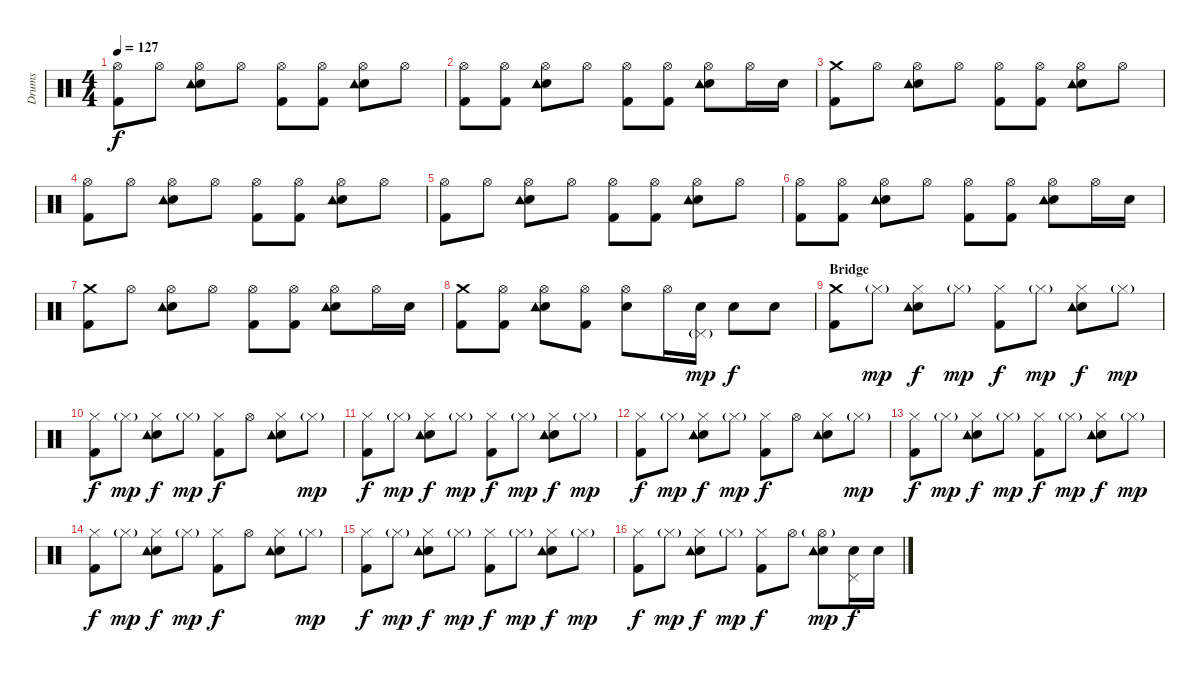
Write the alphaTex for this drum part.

\track ("Drums" "Drums") {instrument percussion}
\staff {score}
\articulation defaults
\ts (4 4)
\tempo 127
\clef neutral
\ks c
("Hi-Hat (open)" "Kick (hit) 2").8{dy f} "Hi-Hat (open)".8 ("Hi-Hat (open)" "Snare (hit) 2" "Tambourine (hit)").8 "Hi-Hat (open)".8 ("Hi-Hat (open)" "Kick (hit) 2").8 ("Hi-Hat (open)" "Kick (hit) 2").8 ("Hi-Hat (open)" "Snare (hit) 2" "Tambourine (hit)").8 "Hi-Hat (open)".8 |
("Hi-Hat (open)" "Kick (hit) 2").8 ("Hi-Hat (open)" "Kick (hit) 2").8 ("Hi-Hat (open)" "Snare (hit) 2" "Tambourine (hit)").8 "Hi-Hat (open)".8 ("Hi-Hat (open)" "Kick (hit) 2").8 ("Hi-Hat (open)" "Kick (hit) 2").8 ("Hi-Hat (open)" "Snare (hit) 2" "Tambourine (hit)").8 "Hi-Hat (open)".16 "Snare (hit) 2".16 |
("Crash medium (hit)" "Kick (hit) 2").8 "Hi-Hat (open)".8 ("Hi-Hat (open)" "Snare (hit) 2" "Tambourine (hit)").8 "Hi-Hat (open)".8 ("Hi-Hat (open)" "Kick (hit) 2").8 ("Hi-Hat (open)" "Kick (hit) 2").8 ("Hi-Hat (open)" "Snare (hit) 2" "Tambourine (hit)").8 "Hi-Hat (open)".8 |
("Hi-Hat (open)" "Kick (hit) 2").8 "Hi-Hat (open)".8 ("Hi-Hat (open)" "Snare (hit) 2" "Tambourine (hit)").8 "Hi-Hat (open)".8 ("Hi-Hat (open)" "Kick (hit) 2").8 ("Hi-Hat (open)" "Kick (hit) 2").8 ("Hi-Hat (open)" "Snare (hit) 2" "Tambourine (hit)").8 "Hi-Hat (open)".8 |
("Hi-Hat (open)" "Kick (hit) 2").8 "Hi-Hat (open)".8 ("Hi-Hat (open)" "Snare (hit) 2" "Tambourine (hit)").8 "Hi-Hat (open)".8 ("Hi-Hat (open)" "Kick (hit) 2").8 ("Hi-Hat (open)" "Kick (hit) 2").8 ("Hi-Hat (open)" "Snare (hit) 2" "Tambourine (hit)").8 "Hi-Hat (open)".8 |
("Hi-Hat (open)" "Kick (hit) 2").8 ("Hi-Hat (open)" "Kick (hit) 2").8 ("Hi-Hat (open)" "Snare (hit) 2" "Tambourine (hit)").8 "Hi-Hat (open)".8 ("Hi-Hat (open)" "Kick (hit) 2").8 ("Hi-Hat (open)" "Kick (hit) 2").8 ("Hi-Hat (open)" "Snare (hit) 2" "Tambourine (hit)").8 "Hi-Hat (open)".16 "Snare (hit) 2".16 |
("Crash medium (hit)" "Kick (hit) 2").8 "Hi-Hat (open)".8 ("Hi-Hat (open)" "Snare (hit) 2" "Tambourine (hit)").8 "Hi-Hat (open)".8 ("Hi-Hat (open)" "Kick (hit) 2").8 ("Hi-Hat (open)" "Kick (hit) 2").8 ("Hi-Hat (open)" "Snare (hit) 2" "Tambourine (hit)").8 "Hi-Hat (open)".16 "Snare (hit) 2".16 |
("Crash medium (hit)" "Kick (hit) 2").8 ("Hi-Hat (open)" "Kick (hit) 2").8 ("Hi-Hat (open)" "Snare (hit) 2" "Tambourine (hit)").8 ("Hi-Hat (open)" "Kick (hit) 2").8 ("Hi-Hat (open)" "Snare (hit) 2").8 "Hi-Hat (open)".16 ("Pedal Hi-Hat (hit)"{g} "Snare (hit) 2").16{dy mp} "Snare (hit) 2".8{dy f} "Snare (hit) 2".8 |
\section ("" "Bridge")
("Crash medium (hit)" "Kick (hit) 2").8 "Hi-Hat (closed)"{g}.8{dy mp} ("Hi-Hat (closed)" "Snare (hit) 2" "Tambourine (hit)").8{dy f} "Hi-Hat (closed)"{g}.8{dy mp} ("Hi-Hat (closed)" "Kick (hit) 2").8{dy f} "Hi-Hat (closed)"{g}.8{dy mp} ("Hi-Hat (closed)" "Snare (hit) 2" "Tambourine (hit)").8{dy f} "Hi-Hat (closed)"{g}.8{dy mp} |
("Hi-Hat (closed)" "Kick (hit) 2").8{dy f} "Hi-Hat (closed)"{g}.8{dy mp} ("Hi-Hat (closed)" "Snare (hit) 2" "Tambourine (hit)").8{dy f} "Hi-Hat (closed)"{g}.8{dy mp} ("Hi-Hat (closed)" "Kick (hit) 2").8{dy f} "Hi-Hat (open)".8 ("Hi-Hat (closed)" "Snare (hit) 2" "Tambourine (hit)").8 "Hi-Hat (closed)"{g}.8{dy mp} |
("Hi-Hat (closed)" "Kick (hit) 2").8{dy f} "Hi-Hat (closed)"{g}.8{dy mp} ("Hi-Hat (closed)" "Snare (hit) 2" "Tambourine (hit)").8{dy f} "Hi-Hat (closed)"{g}.8{dy mp} ("Hi-Hat (closed)" "Kick (hit) 2").8{dy f} "Hi-Hat (closed)"{g}.8{dy mp} ("Hi-Hat (closed)" "Snare (hit) 2" "Tambourine (hit)").8{dy f} "Hi-Hat (closed)"{g}.8{dy mp} |
("Hi-Hat (closed)" "Kick (hit) 2").8{dy f} "Hi-Hat (closed)"{g}.8{dy mp} ("Hi-Hat (closed)" "Snare (hit) 2" "Tambourine (hit)").8{dy f} "Hi-Hat (closed)"{g}.8{dy mp} ("Hi-Hat (closed)" "Kick (hit) 2").8{dy f} "Hi-Hat (open)".8 ("Hi-Hat (closed)" "Snare (hit) 2" "Tambourine (hit)").8 "Hi-Hat (closed)"{g}.8{dy mp} |
("Hi-Hat (closed)" "Kick (hit) 2").8{dy f} "Hi-Hat (closed)"{g}.8{dy mp} ("Hi-Hat (closed)" "Snare (hit) 2" "Tambourine (hit)").8{dy f} "Hi-Hat (closed)"{g}.8{dy mp} ("Hi-Hat (closed)" "Kick (hit) 2").8{dy f} "Hi-Hat (closed)"{g}.8{dy mp} ("Hi-Hat (closed)" "Snare (hit) 2" "Tambourine (hit)").8{dy f} "Hi-Hat (closed)"{g}.8{dy mp} |
("Hi-Hat (closed)" "Kick (hit) 2").8{dy f} "Hi-Hat (closed)"{g}.8{dy mp} ("Hi-Hat (closed)" "Snare (hit) 2" "Tambourine (hit)").8{dy f} "Hi-Hat (closed)"{g}.8{dy mp} ("Hi-Hat (closed)" "Kick (hit) 2").8{dy f} "Hi-Hat (open)".8 ("Hi-Hat (closed)" "Snare (hit) 2" "Tambourine (hit)").8 "Hi-Hat (closed)"{g}.8{dy mp} |
("Hi-Hat (closed)" "Kick (hit) 2").8{dy f} "Hi-Hat (closed)"{g}.8{dy mp} ("Hi-Hat (closed)" "Snare (hit) 2" "Tambourine (hit)").8{dy f} "Hi-Hat (closed)"{g}.8{dy mp} ("Hi-Hat (closed)" "Kick (hit) 2").8{dy f} "Hi-Hat (closed)"{g}.8{dy mp} ("Hi-Hat (closed)" "Snare (hit) 2" "Tambourine (hit)").8{dy f} "Hi-Hat (closed)"{g}.8{dy mp} |
("Hi-Hat (closed)" "Kick (hit) 2").8{dy f} "Hi-Hat (closed)"{g}.8{dy mp} ("Hi-Hat (closed)" "Snare (hit) 2" "Tambourine (hit)").8{dy f} "Hi-Hat (closed)"{g}.8{dy mp} ("Hi-Hat (closed)" "Kick (hit) 2").8{dy f} "Hi-Hat (open)".8 ("Hi-Hat (open)"{g} "Snare (hit) 2" "Tambourine (hit)").8{dy mp} ("Pedal Hi-Hat (hit)" "Snare (hit) 2").16{dy f} "Snare (hit) 2".16
